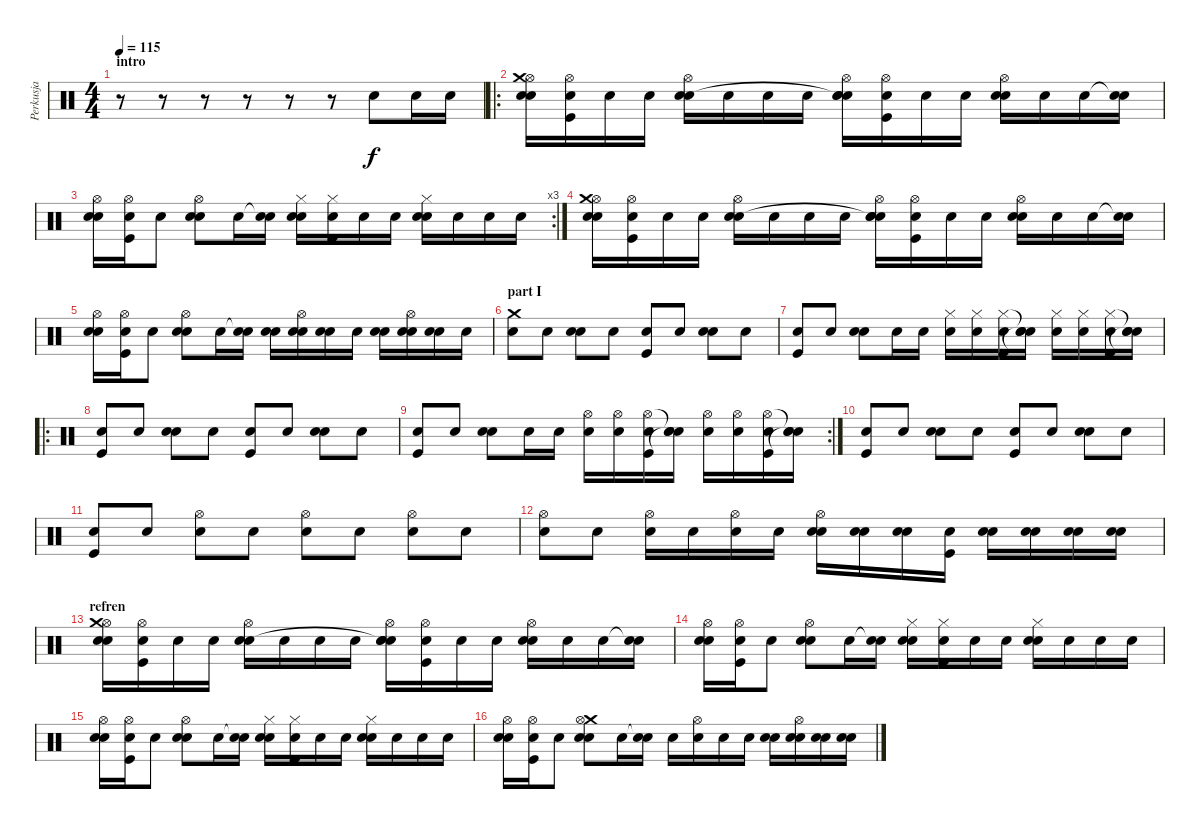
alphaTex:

\track ("Perkusja" "Perkusja") {instrument percussion}
\staff {score}
\articulation defaults
\ts (4 4)
\section ("" "intro")
\tempo 115
\clef neutral
\ks c
r.8{dy f} r.8 r.8 r.8 r.8 r.8 "Electric Snare (hit)".8 "Electric Snare (hit)".16 "Electric Snare (hit)".16 |
\ro
("Hi-Hat (open)" "Snare (hit) 2" "Crash medium (hit)" "Snare (hit)").16 ("Hi-Hat (open)" "Kick (hit)" "Snare (hit)").16 "Snare (hit)".16 "Snare (hit)".16 ("Electric Snare (hit)" "Hi-Hat (open)" "Snare (hit)").16 "Snare (hit)".16 "Snare (hit)".16 "Snare (hit)".16 ("Hi-Hat (open)" "Snare (hit) 2" "Electric Snare (hit)"{t} "Snare (hit)").16 ("Hi-Hat (open)" "Kick (hit)" "Snare (hit)").16 "Snare (hit)".16 "Snare (hit)".16 ("Electric Snare (hit)" "Hi-Hat (open)" "Snare (hit)").16 "Snare (hit)".16 "Snare (hit)".16 ("Snare (hit)"{t} "Snare (hit)").16 |
\rc 3
("Hi-Hat (open)" "Snare (hit) 2" "Snare (hit)").16 ("Hi-Hat (open)" "Kick (hit)" "Snare (hit)").16 "Snare (hit)".8 ("Electric Snare (hit)" "Hi-Hat (open)" "Snare (hit)").8 "Snare (hit)".16 ("Snare (hit)"{t} "Snare (hit)").16 ("Hi-Hat (closed)" "Snare (hit) 2" "Snare (hit)").16 ("Hi-Hat (closed)" "Kick (hit)" "Snare (hit)").16 "Snare (hit)".16 "Snare (hit)".16 ("Electric Snare (hit)" "Hi-Hat (closed)" "Snare (hit)").16 "Snare (hit)".16 "Snare (hit)".16 "Snare (hit)".16 |
("Hi-Hat (open)" "Snare (hit) 2" "Crash medium (hit)" "Snare (hit)").16 ("Hi-Hat (open)" "Kick (hit)" "Snare (hit)").16 "Snare (hit)".16 "Snare (hit)".16 ("Electric Snare (hit)" "Hi-Hat (open)" "Snare (hit)").16 "Snare (hit)".16 "Snare (hit)".16 "Snare (hit)".16 ("Hi-Hat (open)" "Snare (hit) 2" "Electric Snare (hit)"{t} "Snare (hit)").16 ("Hi-Hat (open)" "Kick (hit)" "Snare (hit)").16 "Snare (hit)".16 "Snare (hit)".16 ("Electric Snare (hit)" "Hi-Hat (open)" "Snare (hit)").16 "Snare (hit)".16 "Snare (hit)".16 ("Snare (hit)"{t} "Snare (hit)").16 |
("Hi-Hat (open)" "Snare (hit) 2" "Snare (hit)").16 ("Hi-Hat (open)" "Kick (hit)" "Snare (hit)").16 "Snare (hit)".8 ("Electric Snare (hit)" "Hi-Hat (open)" "Snare (hit)").8 "Snare (hit)".16 ("Snare (hit)"{t} "Snare (hit)").16 ("Electric Snare (hit)" "Snare (hit)").16 ("Hi-Hat (open)" "Electric Snare (hit)" "Snare (hit)").16 ("Electric Snare (hit)" "Snare (hit)").16 "Snare (hit)".16 ("Electric Snare (hit)" "Snare (hit)").16 ("Hi-Hat (open)" "Electric Snare (hit)" "Snare (hit)").16 ("Electric Snare (hit)" "Snare (hit)").16 "Snare (hit)".16 |
\section ("" "part I")
("Crash medium (hit)" "Snare (hit)").8 "Snare (hit)".8 ("Electric Snare (hit)" "Snare (hit)").8 "Snare (hit)".8 ("Kick (hit)" "Snare (hit)").8 "Snare (hit)".8 ("Electric Snare (hit)" "Snare (hit)").8 "Snare (hit)".8 |
("Kick (hit)" "Snare (hit)").8 "Snare (hit)".8 ("Electric Snare (hit)" "Snare (hit)").8 "Snare (hit)".16 "Snare (hit)".16 ("Hi-Hat (closed)" "Snare (hit)").16 ("Hi-Hat (closed)" "Snare (hit)").16 ("Hi-Hat (closed)" "Kick (hit)" "Snare (hit)").16 ("Snare (hit)"{t} "Snare (hit)"{t} "Snare (hit)").16 ("Hi-Hat (closed)" "Snare (hit)").16 ("Hi-Hat (closed)" "Snare (hit)").16 ("Hi-Hat (closed)" "Kick (hit)" "Snare (hit)").16 ("Snare (hit)"{t} "Snare (hit)"{t} "Snare (hit)").16 |
\ro
("Kick (hit)" "Snare (hit)").8 "Snare (hit)".8 ("Electric Snare (hit)" "Snare (hit)").8 "Snare (hit)".8 ("Kick (hit)" "Snare (hit)").8 "Snare (hit)".8 ("Electric Snare (hit)" "Snare (hit)").8 "Snare (hit)".8 |
\rc 2
("Kick (hit)" "Snare (hit)").8 "Snare (hit)".8 ("Electric Snare (hit)" "Snare (hit)").8 "Snare (hit)".16 "Snare (hit)".16 ("Hi-Hat (open)" "Snare (hit)").16 ("Hi-Hat (open)" "Snare (hit)").16 ("Hi-Hat (open)" "Kick (hit)" "Snare (hit)").16 ("Snare (hit)"{t} "Snare (hit)"{t} "Snare (hit)").16 ("Hi-Hat (open)" "Snare (hit)").16 ("Hi-Hat (open)" "Snare (hit)").16 ("Hi-Hat (open)" "Kick (hit)" "Snare (hit)").16 ("Snare (hit)"{t} "Snare (hit)"{t} "Snare (hit)").16 |
("Kick (hit)" "Snare (hit)").8 "Snare (hit)".8 ("Electric Snare (hit)" "Snare (hit)").8 "Snare (hit)".8 ("Kick (hit)" "Snare (hit)").8 "Snare (hit)".8 ("Electric Snare (hit)" "Snare (hit)").8 "Snare (hit)".8 |
("Kick (hit)" "Snare (hit)").8 "Snare (hit)".8 ("Hi-Hat (open)" "Snare (hit)").8 "Snare (hit)".8 ("Hi-Hat (open)" "Snare (hit)").8 "Snare (hit)".8 ("Hi-Hat (open)" "Snare (hit)").8 "Snare (hit)".8 |
("Hi-Hat (open)" "Snare (hit)").8 "Snare (hit)".8 ("Hi-Hat (open)" "Snare (hit)").16 "Snare (hit)".16 ("Hi-Hat (open)" "Snare (hit)").16 "Snare (hit)".16 ("Hi-Hat (open)" "Snare (hit) 2" "Snare (hit)").16 ("Snare (hit) 2" "Snare (hit)").16 ("Snare (hit) 2" "Snare (hit)").16 ("Kick (hit)" "Snare (hit)").16 ("Electric Snare (hit)" "Snare (hit)").16 ("Electric Snare (hit)" "Snare (hit)").16 ("Electric Snare (hit)" "Snare (hit)").16 ("Electric Snare (hit)" "Snare (hit)").16 |
\section ("" "refren")
("Hi-Hat (open)" "Electric Snare (hit)" "Crash medium (hit)" "Snare (hit)").16 ("Hi-Hat (open)" "Kick (hit)" "Snare (hit)").16 "Snare (hit)".16 "Snare (hit)".16 ("Electric Snare (hit)" "Hi-Hat (open)" "Snare (hit)").16 "Snare (hit)".16 "Snare (hit)".16 "Snare (hit)".16 ("Hi-Hat (open)" "Snare (hit) 2" "Electric Snare (hit)"{t} "Snare (hit)").16 ("Hi-Hat (open)" "Kick (hit)" "Snare (hit)").16 "Snare (hit)".16 "Snare (hit)".16 ("Electric Snare (hit)" "Hi-Hat (open)" "Snare (hit)").16 "Snare (hit)".16 "Snare (hit)".16 ("Snare (hit)"{t} "Snare (hit)").16 |
("Hi-Hat (open)" "Snare (hit) 2" "Snare (hit)").16 ("Hi-Hat (open)" "Kick (hit)" "Snare (hit)").16 "Snare (hit)".8 ("Electric Snare (hit)" "Hi-Hat (open)" "Snare (hit)").8 "Snare (hit)".16 ("Snare (hit)"{t} "Snare (hit)").16 ("Hi-Hat (closed)" "Snare (hit) 2" "Snare (hit)").16 ("Hi-Hat (closed)" "Kick (hit)" "Snare (hit)").16 "Snare (hit)".16 "Snare (hit)".16 ("Electric Snare (hit)" "Hi-Hat (closed)" "Snare (hit)").16 "Snare (hit)".16 "Snare (hit)".16 "Snare (hit)".16 |
("Hi-Hat (open)" "Snare (hit) 2" "Snare (hit)").16 ("Hi-Hat (open)" "Kick (hit)" "Snare (hit)").16 "Snare (hit)".8 ("Electric Snare (hit)" "Hi-Hat (open)" "Snare (hit)").8 "Snare (hit)".16 ("Snare (hit)"{t} "Snare (hit)").16 ("Hi-Hat (closed)" "Snare (hit) 2" "Snare (hit)").16 ("Hi-Hat (closed)" "Kick (hit)" "Snare (hit)").16 "Snare (hit)".16 "Snare (hit)".16 ("Electric Snare (hit)" "Hi-Hat (closed)" "Snare (hit)").16 "Snare (hit)".16 "Snare (hit)".16 "Snare (hit)".16 |
("Hi-Hat (open)" "Snare (hit) 2" "Snare (hit)").16 ("Hi-Hat (open)" "Kick (hit)" "Snare (hit)").16 "Snare (hit)".8 ("Electric Snare (hit)" "Crash medium (hit)" "Hi-Hat (open)" "Snare (hit)").8 "Snare (hit)".16 ("Snare (hit)"{t} "Snare (hit)").16 "Snare (hit)".16 ("Hi-Hat (open)" "Snare (hit)").16 "Snare (hit)".16 "Snare (hit)".16 ("Electric Snare (hit)" "Snare (hit)").16 ("Hi-Hat (open)" "Electric Snare (hit)" "Snare (hit)").16 ("Electric Snare (hit)" "Snare (hit)").16 ("Snare (hit) 2" "Snare (hit)").16
